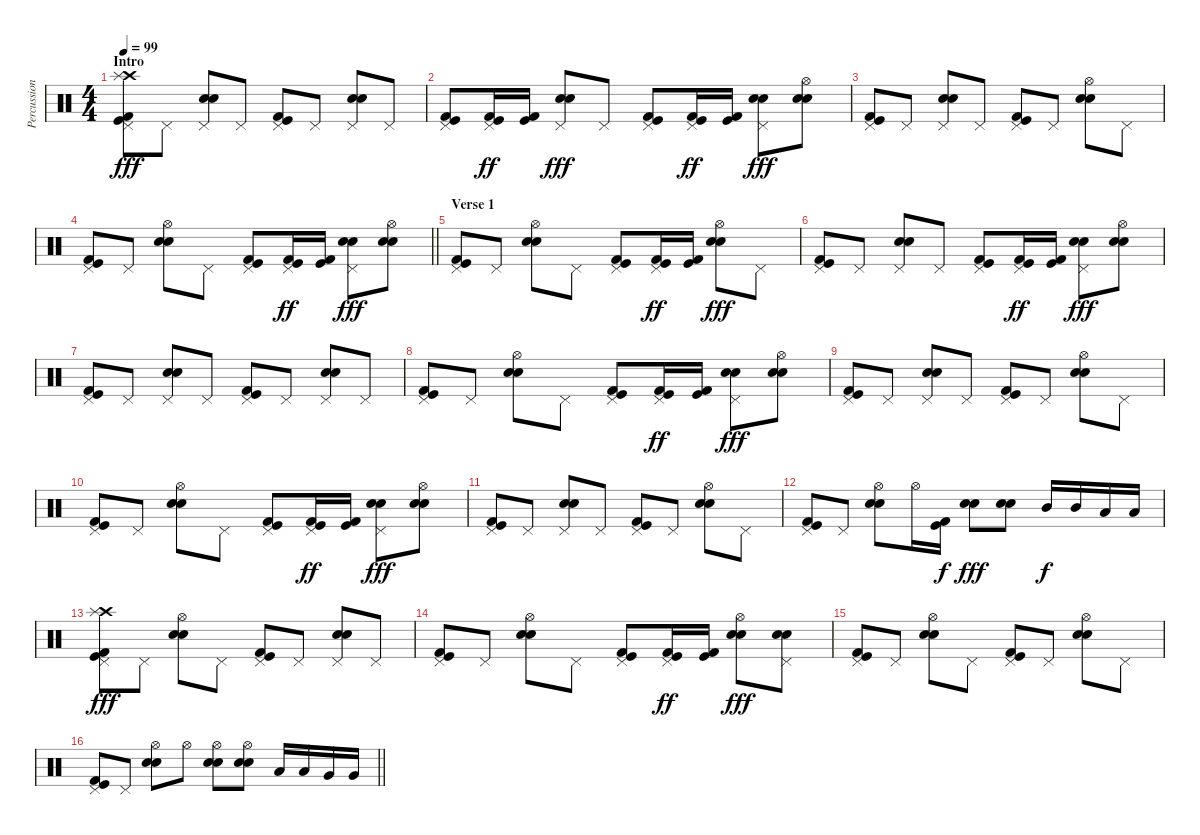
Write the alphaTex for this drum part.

\track ("Percussion" "Percussion") {instrument percussion}
\staff {score}
\articulation defaults
\ts (4 4)
\section ("" "Intro")
\tempo 99
\clef neutral
\ks c
("Crash high (hit)" "Splash (hit)" "Pedal Hi-Hat (hit)" "Kick (hit)" "Kick (hit) 2").8{dy fff} "Pedal Hi-Hat (hit)".8 ("Electric Snare (hit)" "Snare (hit) 2" "Pedal Hi-Hat (hit)").8 "Pedal Hi-Hat (hit)".8 ("Pedal Hi-Hat (hit)" "Kick (hit)" "Kick (hit) 2").8 "Pedal Hi-Hat (hit)".8 ("Electric Snare (hit)" "Snare (hit) 2" "Pedal Hi-Hat (hit)").8 "Pedal Hi-Hat (hit)".8 |
("Pedal Hi-Hat (hit)" "Kick (hit)" "Kick (hit) 2").8 ("Pedal Hi-Hat (hit)" "Kick (hit)" "Kick (hit) 2").16{dy ff} ("Kick (hit) 2" "Kick (hit)").16 ("Electric Snare (hit)" "Snare (hit) 2" "Pedal Hi-Hat (hit)").8{dy fff} "Pedal Hi-Hat (hit)".8 ("Pedal Hi-Hat (hit)" "Kick (hit)" "Kick (hit) 2").8 ("Pedal Hi-Hat (hit)" "Kick (hit)" "Kick (hit) 2").16{dy ff} ("Kick (hit) 2" "Kick (hit)").16 ("Electric Snare (hit)" "Snare (hit) 2" "Pedal Hi-Hat (hit)").8{dy fff} ("Electric Snare (hit)" "Snare (hit) 2" "Hi-Hat (open)").8 |
("Pedal Hi-Hat (hit)" "Kick (hit)" "Kick (hit) 2").8 "Pedal Hi-Hat (hit)".8 ("Electric Snare (hit)" "Snare (hit) 2" "Pedal Hi-Hat (hit)").8 "Pedal Hi-Hat (hit)".8 ("Pedal Hi-Hat (hit)" "Kick (hit)" "Kick (hit) 2").8 "Pedal Hi-Hat (hit)".8 ("Electric Snare (hit)" "Snare (hit) 2" "Hi-Hat (open)").8 "Pedal Hi-Hat (hit)".8 |
\barLineRight lightlight
("Pedal Hi-Hat (hit)" "Kick (hit)" "Kick (hit) 2").8 "Pedal Hi-Hat (hit)".8 ("Electric Snare (hit)" "Snare (hit) 2" "Hi-Hat (open)").8 "Pedal Hi-Hat (hit)".8 ("Pedal Hi-Hat (hit)" "Kick (hit)" "Kick (hit) 2").8 ("Pedal Hi-Hat (hit)" "Kick (hit)" "Kick (hit) 2").16{dy ff} ("Kick (hit) 2" "Kick (hit)").16 ("Electric Snare (hit)" "Snare (hit) 2" "Pedal Hi-Hat (hit)").8{dy fff} ("Electric Snare (hit)" "Snare (hit) 2" "Hi-Hat (open)").8 |
\section ("" "Verse 1")
("Pedal Hi-Hat (hit)" "Kick (hit)" "Kick (hit) 2").8 "Pedal Hi-Hat (hit)".8 ("Electric Snare (hit)" "Snare (hit) 2" "Hi-Hat (open)").8 "Pedal Hi-Hat (hit)".8 ("Pedal Hi-Hat (hit)" "Kick (hit)" "Kick (hit) 2").8 ("Pedal Hi-Hat (hit)" "Kick (hit)" "Kick (hit) 2").16{dy ff} ("Kick (hit) 2" "Kick (hit)").16 ("Electric Snare (hit)" "Snare (hit) 2" "Hi-Hat (open)").8{dy fff} "Pedal Hi-Hat (hit)".8 |
("Pedal Hi-Hat (hit)" "Kick (hit)" "Kick (hit) 2").8 "Pedal Hi-Hat (hit)".8 ("Electric Snare (hit)" "Snare (hit) 2" "Pedal Hi-Hat (hit)").8 "Pedal Hi-Hat (hit)".8 ("Pedal Hi-Hat (hit)" "Kick (hit)" "Kick (hit) 2").8 ("Pedal Hi-Hat (hit)" "Kick (hit)" "Kick (hit) 2").16{dy ff} ("Kick (hit) 2" "Kick (hit)").16 ("Electric Snare (hit)" "Snare (hit) 2" "Pedal Hi-Hat (hit)").8{dy fff} ("Electric Snare (hit)" "Snare (hit) 2" "Hi-Hat (open)").8 |
("Pedal Hi-Hat (hit)" "Kick (hit)" "Kick (hit) 2").8 "Pedal Hi-Hat (hit)".8 ("Electric Snare (hit)" "Snare (hit) 2" "Pedal Hi-Hat (hit)").8 "Pedal Hi-Hat (hit)".8 ("Pedal Hi-Hat (hit)" "Kick (hit)" "Kick (hit) 2").8 "Pedal Hi-Hat (hit)".8 ("Electric Snare (hit)" "Snare (hit) 2" "Pedal Hi-Hat (hit)").8 "Pedal Hi-Hat (hit)".8 |
("Pedal Hi-Hat (hit)" "Kick (hit)" "Kick (hit) 2").8 "Pedal Hi-Hat (hit)".8 ("Electric Snare (hit)" "Snare (hit) 2" "Hi-Hat (open)").8 "Pedal Hi-Hat (hit)".8 ("Pedal Hi-Hat (hit)" "Kick (hit)" "Kick (hit) 2").8 ("Pedal Hi-Hat (hit)" "Kick (hit)" "Kick (hit) 2").16{dy ff} ("Kick (hit) 2" "Kick (hit)").16 ("Electric Snare (hit)" "Snare (hit) 2" "Pedal Hi-Hat (hit)").8{dy fff} ("Electric Snare (hit)" "Snare (hit) 2" "Hi-Hat (open)").8 |
("Pedal Hi-Hat (hit)" "Kick (hit)" "Kick (hit) 2").8 "Pedal Hi-Hat (hit)".8 ("Electric Snare (hit)" "Snare (hit) 2" "Pedal Hi-Hat (hit)").8 "Pedal Hi-Hat (hit)".8 ("Pedal Hi-Hat (hit)" "Kick (hit)" "Kick (hit) 2").8 "Pedal Hi-Hat (hit)".8 ("Electric Snare (hit)" "Snare (hit) 2" "Hi-Hat (open)").8 "Pedal Hi-Hat (hit)".8 |
("Pedal Hi-Hat (hit)" "Kick (hit)" "Kick (hit) 2").8 "Pedal Hi-Hat (hit)".8 ("Electric Snare (hit)" "Snare (hit) 2" "Hi-Hat (open)").8 "Pedal Hi-Hat (hit)".8 ("Pedal Hi-Hat (hit)" "Kick (hit)" "Kick (hit) 2").8 ("Pedal Hi-Hat (hit)" "Kick (hit)" "Kick (hit) 2").16{dy ff} ("Kick (hit) 2" "Kick (hit)").16 ("Electric Snare (hit)" "Snare (hit) 2" "Pedal Hi-Hat (hit)").8{dy fff} ("Electric Snare (hit)" "Snare (hit) 2" "Hi-Hat (open)").8 |
("Pedal Hi-Hat (hit)" "Kick (hit)" "Kick (hit) 2").8 "Pedal Hi-Hat (hit)".8 ("Electric Snare (hit)" "Snare (hit) 2" "Pedal Hi-Hat (hit)").8 "Pedal Hi-Hat (hit)".8 ("Pedal Hi-Hat (hit)" "Kick (hit)" "Kick (hit) 2").8 "Pedal Hi-Hat (hit)".8 ("Electric Snare (hit)" "Snare (hit) 2" "Hi-Hat (open)").8 "Pedal Hi-Hat (hit)".8 |
("Pedal Hi-Hat (hit)" "Kick (hit)" "Kick (hit) 2").8 "Pedal Hi-Hat (hit)".8 ("Electric Snare (hit)" "Snare (hit) 2" "Hi-Hat (open)").8 "Hi-Hat (open)".16 ("Kick (hit)" "Kick (hit) 2").16{dy f} ("Electric Snare (hit)" "Snare (hit) 2").8{dy fff} ("Electric Snare (hit)" "Snare (hit) 2").8 "Mid Tom (hit)".16{dy f} "Mid Tom (hit)".16 "Low Tom (hit)".16 "Low Tom (hit)".16 |
("Crash high (hit)" "Splash (hit)" "Pedal Hi-Hat (hit)" "Kick (hit)" "Kick (hit) 2").8{dy fff} "Pedal Hi-Hat (hit)".8 ("Electric Snare (hit)" "Snare (hit) 2" "Hi-Hat (open)").8 "Pedal Hi-Hat (hit)".8 ("Pedal Hi-Hat (hit)" "Kick (hit)" "Kick (hit) 2").8 "Pedal Hi-Hat (hit)".8 ("Electric Snare (hit)" "Snare (hit) 2" "Pedal Hi-Hat (hit)").8 "Pedal Hi-Hat (hit)".8 |
("Pedal Hi-Hat (hit)" "Kick (hit)" "Kick (hit) 2").8 "Pedal Hi-Hat (hit)".8 ("Electric Snare (hit)" "Snare (hit) 2" "Hi-Hat (open)").8 "Pedal Hi-Hat (hit)".8 ("Pedal Hi-Hat (hit)" "Kick (hit)" "Kick (hit) 2").8 ("Pedal Hi-Hat (hit)" "Kick (hit)" "Kick (hit) 2").16{dy ff} ("Kick (hit) 2" "Kick (hit)").16 ("Electric Snare (hit)" "Snare (hit) 2" "Hi-Hat (open)").8{dy fff} ("Electric Snare (hit)" "Snare (hit) 2" "Pedal Hi-Hat (hit)").8 |
("Pedal Hi-Hat (hit)" "Kick (hit)" "Kick (hit) 2").8 "Pedal Hi-Hat (hit)".8 ("Electric Snare (hit)" "Snare (hit) 2" "Hi-Hat (open)").8 "Pedal Hi-Hat (hit)".8 ("Pedal Hi-Hat (hit)" "Kick (hit)" "Kick (hit) 2").8 "Pedal Hi-Hat (hit)".8 ("Electric Snare (hit)" "Snare (hit) 2" "Hi-Hat (open)").8 "Pedal Hi-Hat (hit)".8 |
\barLineRight lightlight
("Pedal Hi-Hat (hit)" "Kick (hit)" "Kick (hit) 2").8 "Pedal Hi-Hat (hit)".8 ("Electric Snare (hit)" "Snare (hit) 2" "Hi-Hat (open)").8 "Hi-Hat (open)".8 ("Electric Snare (hit)" "Snare (hit) 2" "Hi-Hat (open)").8 ("Electric Snare (hit)" "Snare (hit) 2" "Hi-Hat (open)").8 "Low Tom (hit)".16 "Low Tom (hit)".16 "Very Low Tom (hit)".16 "Very Low Tom (hit)".16
